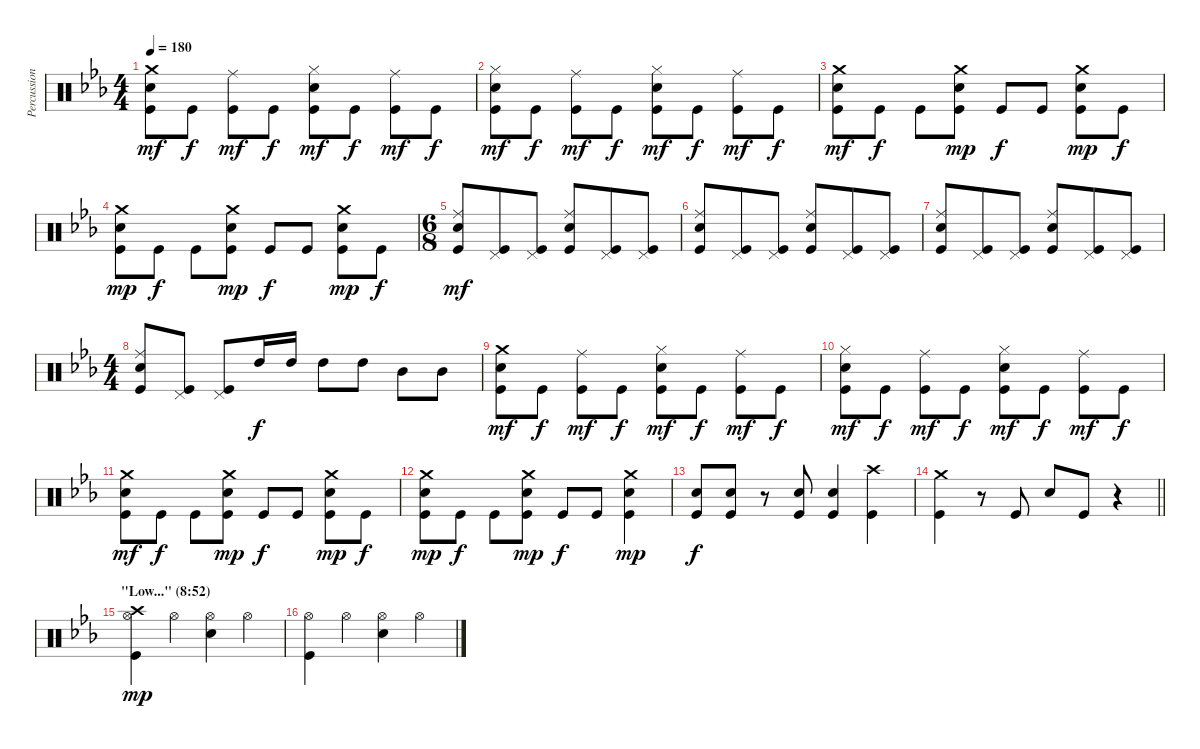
\track ("Percussion" "Percussion") {instrument percussion}
\staff {score}
\articulation defaults
\ts (4 4)
\tempo 180
\clef neutral
\ks cminor
("Crash medium (hit)" "Snare (hit) 2" "Kick (hit)").8{dy mf} "Kick (hit)".8{dy f} ("Ride (middle)" "Kick (hit)").8{dy mf} "Kick (hit)".8{dy f} ("Hi-Hat (closed)" "Snare (hit) 2" "Kick (hit)").8{dy mf} "Kick (hit)".8{dy f} ("Ride (middle)" "Kick (hit)").8{dy mf} "Kick (hit)".8{dy f} |
("Hi-Hat (closed)" "Snare (hit) 2" "Kick (hit)").8{dy mf} "Kick (hit)".8{dy f} ("Ride (middle)" "Kick (hit)").8{dy mf} "Kick (hit)".8{dy f} ("Hi-Hat (closed)" "Snare (hit) 2" "Kick (hit)").8{dy mf} "Kick (hit)".8{dy f} ("Ride (middle)" "Kick (hit)").8{dy mf} "Kick (hit)".8{dy f} |
("Crash medium (hit)" "Snare (hit) 2" "Kick (hit)").8{dy mf} "Kick (hit)".8{dy f} "Kick (hit)".8 ("Crash medium (hit)" "Snare (hit) 2" "Kick (hit)").8{dy mp} "Kick (hit)".8{dy f} "Kick (hit)".8 ("Crash medium (hit)" "Snare (hit) 2" "Kick (hit)").8{dy mp} "Kick (hit)".8{dy f} |
("Crash medium (hit)" "Snare (hit) 2" "Kick (hit)").8{dy mp} "Kick (hit)".8{dy f} "Kick (hit)".8 ("Crash medium (hit)" "Snare (hit) 2" "Kick (hit)").8{dy mp} "Kick (hit)".8{dy f} "Kick (hit)".8 ("Crash medium (hit)" "Snare (hit) 2" "Kick (hit)").8{dy mp} "Kick (hit)".8{dy f} |
\ts (6 8)
("Ride (middle)" "Snare (hit) 2" "Kick (hit)").8{dy mf} ("Pedal Hi-Hat (hit)" "Kick (hit)").8 ("Pedal Hi-Hat (hit)" "Kick (hit)").8 ("Ride (middle)" "Snare (hit) 2" "Kick (hit)").8 ("Pedal Hi-Hat (hit)" "Kick (hit)").8 ("Pedal Hi-Hat (hit)" "Kick (hit)").8 |
("Ride (middle)" "Snare (hit) 2" "Kick (hit)").8 ("Pedal Hi-Hat (hit)" "Kick (hit)").8 ("Pedal Hi-Hat (hit)" "Kick (hit)").8 ("Ride (middle)" "Snare (hit) 2" "Kick (hit)").8 ("Pedal Hi-Hat (hit)" "Kick (hit)").8 ("Pedal Hi-Hat (hit)" "Kick (hit)").8 |
("Ride (middle)" "Snare (hit) 2" "Kick (hit)").8 ("Pedal Hi-Hat (hit)" "Kick (hit)").8 ("Pedal Hi-Hat (hit)" "Kick (hit)").8 ("Ride (middle)" "Snare (hit) 2" "Kick (hit)").8 ("Pedal Hi-Hat (hit)" "Kick (hit)").8 ("Pedal Hi-Hat (hit)" "Kick (hit)").8 |
\ts (4 4)
("Ride (middle)" "Snare (hit) 2" "Kick (hit)").8 ("Pedal Hi-Hat (hit)" "Kick (hit)").8 ("Pedal Hi-Hat (hit)" "Kick (hit)").8 "High Tom (hit)".16{dy f} "High Tom (hit)".16 "High Tom (hit)".8 "High Tom (hit)".8 "Mid Tom (hit)".8 "Mid Tom (hit)".8 |
("Crash medium (hit)" "Snare (hit) 2" "Kick (hit)").8{dy mf} "Kick (hit)".8{dy f} ("Ride (middle)" "Kick (hit)").8{dy mf} "Kick (hit)".8{dy f} ("Hi-Hat (closed)" "Snare (hit) 2" "Kick (hit)").8{dy mf} "Kick (hit)".8{dy f} ("Ride (middle)" "Kick (hit)").8{dy mf} "Kick (hit)".8{dy f} |
("Hi-Hat (closed)" "Snare (hit) 2" "Kick (hit)").8{dy mf} "Kick (hit)".8{dy f} ("Ride (middle)" "Kick (hit)").8{dy mf} "Kick (hit)".8{dy f} ("Hi-Hat (closed)" "Snare (hit) 2" "Kick (hit)").8{dy mf} "Kick (hit)".8{dy f} ("Ride (middle)" "Kick (hit)").8{dy mf} "Kick (hit)".8{dy f} |
("Crash medium (hit)" "Snare (hit) 2" "Kick (hit)").8{dy mf} "Kick (hit)".8{dy f} "Kick (hit)".8 ("Crash medium (hit)" "Snare (hit) 2" "Kick (hit)").8{dy mp} "Kick (hit)".8{dy f} "Kick (hit)".8 ("Crash medium (hit)" "Snare (hit) 2" "Kick (hit)").8{dy mp} "Kick (hit)".8{dy f} |
("Crash medium (hit)" "Snare (hit) 2" "Kick (hit)").8{dy mp} "Kick (hit)".8{dy f} "Kick (hit)".8 ("Crash medium (hit)" "Snare (hit) 2" "Kick (hit)").8{dy mp} "Kick (hit)".8{dy f} "Kick (hit)".8 ("Crash medium (hit)" "Snare (hit) 2" "Kick (hit)").4{dy mp} |
("Snare (hit) 2" "Kick (hit)").8{dy f} ("Snare (hit) 2" "Kick (hit)").8 r.8 ("Snare (hit) 2" "Kick (hit)").8 ("Snare (hit) 2" "Kick (hit)").4 ("Crash high (hit)" "Kick (hit)").4 |
\barLineRight lightlight
("Crash medium (hit)" "Kick (hit)").4 r.8 "Kick (hit)".8 "Snare (hit) 2".8 "Kick (hit)".8 r.4 |
\section ("" "\"Low...\" (8:52)")
("Crash high (hit)" "Hi-Hat (open)" "Kick (hit)").4{dy mp} "Hi-Hat (open)".4 ("Hi-Hat (open)" "Snare (hit) 2").4 "Hi-Hat (open)".4 |
("Hi-Hat (open)" "Kick (hit)").4 "Hi-Hat (open)".4 ("Hi-Hat (open)" "Snare (hit) 2").4 "Hi-Hat (open)".4
